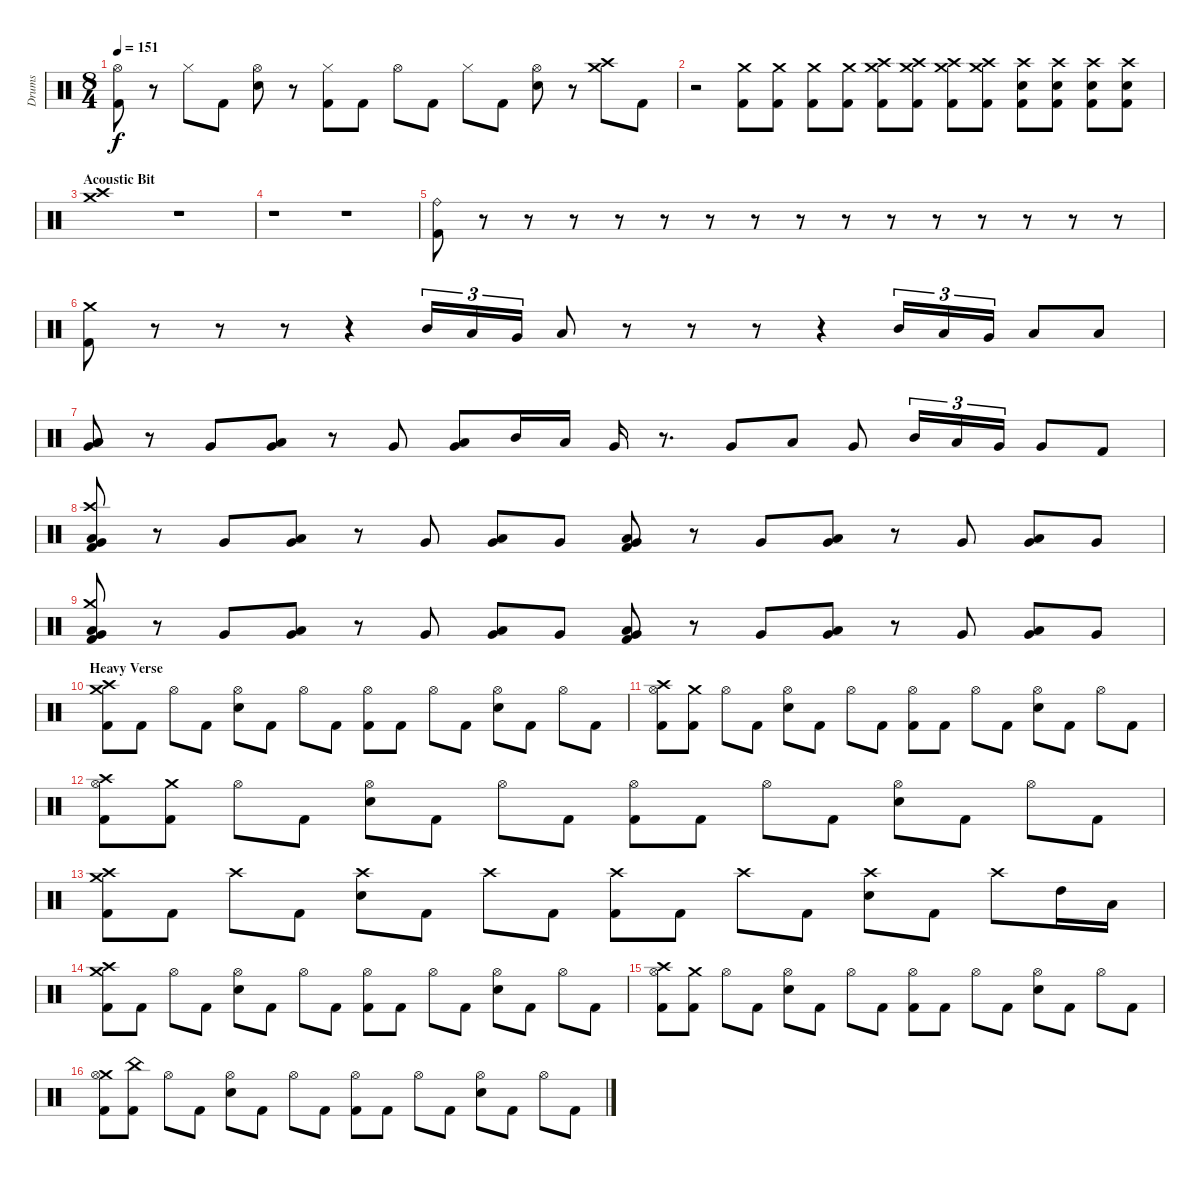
\track ("Drums" "Drums") {instrument percussion}
\staff {score}
\articulation defaults
\ts (8 4)
\tempo 151
\clef neutral
\ks c
("Hi-Hat (open)" "Kick (hit) 2").8{dy f} r.8 "Hi-Hat (closed)".8 "Kick (hit) 2".8 ("Hi-Hat (open)" "Electric Snare (hit)").8 r.8 ("Hi-Hat (closed)" "Kick (hit) 2").8 "Kick (hit) 2".8 "Hi-Hat (open)".8 "Kick (hit) 2".8 "Hi-Hat (closed)".8 "Kick (hit) 2".8 ("Hi-Hat (open)" "Electric Snare (hit)").8 r.8 ("Crash medium (hit)" "Crash high (hit)").8 "Kick (hit) 2".8 |
r.2 ("Crash medium (hit)" "Kick (hit) 2").8 ("Crash medium (hit)" "Kick (hit) 2").8 ("Crash medium (hit)" "Kick (hit) 2").8 ("Crash medium (hit)" "Kick (hit) 2").8 ("Crash high (hit)" "Crash medium (hit)" "Kick (hit) 2").8 ("Crash high (hit)" "Crash medium (hit)" "Kick (hit) 2").8 ("Crash high (hit)" "Crash medium (hit)" "Kick (hit) 2").8 ("Crash high (hit)" "Crash medium (hit)" "Kick (hit) 2").8 ("Crash high (hit)" "Electric Snare (hit)" "Kick (hit) 2").8 ("Crash high (hit)" "Electric Snare (hit)" "Kick (hit) 2").8 ("Crash high (hit)" "Electric Snare (hit)" "Kick (hit) 2").8 ("Crash high (hit)" "Electric Snare (hit)" "Kick (hit) 2").8 |
\section ("" "Acoustic Bit")
("Crash high (hit)" "Crash medium (hit)").1 r.1 |
r.1 r.1 |
("Ride (bell)" "Kick (hit) 2").8 r.8 r.8 r.8 r.8 r.8 r.8 r.8 r.8 r.8 r.8 r.8 r.8 r.8 r.8 r.8 |
("Crash medium (hit)" "Kick (hit) 2").8 r.8 r.8 r.8 r.4 "Mid Tom (hit)".16{tu (3 2)} "Low Tom (hit)".16{tu (3 2)} "Very Low Tom (hit)".16{tu (3 2)} "Low Floor Tom (hit)".8 r.8 r.8 r.8 r.4 "Mid Tom (hit)".16{tu (3 2)} "Low Tom (hit)".16{tu (3 2)} "Very Low Tom (hit)".16{tu (3 2)} "Low Floor Tom (hit)".8 "Low Floor Tom (hit)".8 |
("Low Tom (hit)" "Very Low Tom (hit)" "Low Floor Tom (hit)").8 r.8 "Very Low Tom (hit)".8 ("Low Tom (hit)" "Very Low Tom (hit)").8 r.8 "Very Low Tom (hit)".8 ("Low Tom (hit)" "Very Low Tom (hit)").8 "Mid Tom (hit)".16 "Low Tom (hit)".16 "Very Low Tom (hit)".16 r.8{d} "Very Low Tom (hit)".8 "Low Floor Tom (hit)".8 "Very Low Tom (hit)".8 "Mid Tom (hit)".16{tu (3 2)} "Low Tom (hit)".16{tu (3 2)} "Very Low Tom (hit)".16{tu (3 2)} "Very Low Tom (hit)".8 "Kick (hit) 2".8 |
("Crash high (hit)" "Low Tom (hit)" "Very Low Tom (hit)" "Kick (hit) 2").8 r.8 "Very Low Tom (hit)".8 ("Low Tom (hit)" "Very Low Tom (hit)").8 r.8 "Very Low Tom (hit)".8 ("Low Tom (hit)" "Very Low Tom (hit)").8 "Very Low Tom (hit)".8 ("Low Tom (hit)" "Very Low Tom (hit)" "Kick (hit) 2").8 r.8 "Very Low Tom (hit)".8 ("Low Tom (hit)" "Very Low Tom (hit)").8 r.8 "Very Low Tom (hit)".8 ("Low Tom (hit)" "Very Low Tom (hit)").8 "Very Low Tom (hit)".8 |
("Crash medium (hit)" "Low Tom (hit)" "Very Low Tom (hit)" "Kick (hit) 2").8 r.8 "Very Low Tom (hit)".8 ("Low Tom (hit)" "Very Low Tom (hit)").8 r.8 "Very Low Tom (hit)".8 ("Low Tom (hit)" "Very Low Tom (hit)").8 "Very Low Tom (hit)".8 ("Low Tom (hit)" "Very Low Tom (hit)" "Kick (hit) 2").8 r.8 "Very Low Tom (hit)".8 ("Low Tom (hit)" "Very Low Tom (hit)").8 r.8 "Very Low Tom (hit)".8 ("Low Tom (hit)" "Very Low Tom (hit)").8 "Very Low Tom (hit)".8 |
\section ("" "Heavy Verse")
("Crash high (hit)" "Crash medium (hit)" "Kick (hit) 2").8 "Kick (hit) 2".8 "Hi-Hat (open)".8 "Kick (hit) 2".8 ("Hi-Hat (open)" "Electric Snare (hit)").8 "Kick (hit) 2".8 "Hi-Hat (open)".8 "Kick (hit) 2".8 ("Hi-Hat (open)" "Kick (hit) 2").8 "Kick (hit) 2".8 "Hi-Hat (open)".8 "Kick (hit) 2".8 ("Hi-Hat (open)" "Electric Snare (hit)").8 "Kick (hit) 2".8 "Hi-Hat (open)".8 "Kick (hit) 2".8 |
("Crash high (hit)" "Hi-Hat (open)" "Kick (hit) 2").8 ("Crash medium (hit)" "Kick (hit) 2").8 "Hi-Hat (open)".8 "Kick (hit) 2".8 ("Hi-Hat (open)" "Electric Snare (hit)").8 "Kick (hit) 2".8 "Hi-Hat (open)".8 "Kick (hit) 2".8 ("Hi-Hat (open)" "Kick (hit) 2").8 "Kick (hit) 2".8 "Hi-Hat (open)".8 "Kick (hit) 2".8 ("Hi-Hat (open)" "Electric Snare (hit)").8 "Kick (hit) 2".8 "Hi-Hat (open)".8 "Kick (hit) 2".8 |
("Crash high (hit)" "Hi-Hat (open)" "Kick (hit) 2").8 ("Crash medium (hit)" "Kick (hit) 2").8 "Hi-Hat (open)".8 "Kick (hit) 2".8 ("Hi-Hat (open)" "Electric Snare (hit)").8 "Kick (hit) 2".8 "Hi-Hat (open)".8 "Kick (hit) 2".8 ("Hi-Hat (open)" "Kick (hit) 2").8 "Kick (hit) 2".8 "Hi-Hat (open)".8 "Kick (hit) 2".8 ("Hi-Hat (open)" "Electric Snare (hit)").8 "Kick (hit) 2".8 "Hi-Hat (open)".8 "Kick (hit) 2".8 |
("Crash high (hit)" "Crash medium (hit)" "Kick (hit) 2").8 "Kick (hit) 2".8 "Crash high (hit)".8 "Kick (hit) 2".8 ("Crash high (hit)" "Electric Snare (hit)").8 "Kick (hit) 2".8 "Crash high (hit)".8 "Kick (hit) 2".8 ("Crash high (hit)" "Kick (hit) 2").8 "Kick (hit) 2".8 "Crash high (hit)".8 "Kick (hit) 2".8 ("Crash high (hit)" "Electric Snare (hit)").8 "Kick (hit) 2".8 "Crash high (hit)".8 "High Tom (hit)".16 "Low Tom (hit)".16 |
("Crash high (hit)" "Crash medium (hit)" "Kick (hit) 2").8 "Kick (hit) 2".8 "Hi-Hat (open)".8 "Kick (hit) 2".8 ("Hi-Hat (open)" "Electric Snare (hit)").8 "Kick (hit) 2".8 "Hi-Hat (open)".8 "Kick (hit) 2".8 ("Hi-Hat (open)" "Kick (hit) 2").8 "Kick (hit) 2".8 "Hi-Hat (open)".8 "Kick (hit) 2".8 ("Hi-Hat (open)" "Electric Snare (hit)").8 "Kick (hit) 2".8 "Hi-Hat (open)".8 "Kick (hit) 2".8 |
("Crash high (hit)" "Hi-Hat (open)" "Kick (hit) 2").8 ("Crash medium (hit)" "Kick (hit) 2").8 "Hi-Hat (open)".8 "Kick (hit) 2".8 ("Hi-Hat (open)" "Electric Snare (hit)").8 "Kick (hit) 2".8 "Hi-Hat (open)".8 "Kick (hit) 2".8 ("Hi-Hat (open)" "Kick (hit) 2").8 "Kick (hit) 2".8 "Hi-Hat (open)".8 "Kick (hit) 2".8 ("Hi-Hat (open)" "Electric Snare (hit)").8 "Kick (hit) 2".8 "Hi-Hat (open)".8 "Kick (hit) 2".8 |
("Crash medium (hit)" "Hi-Hat (open)" "Kick (hit) 2").8 ("China (hit)" "Kick (hit) 2").8 "Hi-Hat (open)".8 "Kick (hit) 2".8 ("Hi-Hat (open)" "Electric Snare (hit)").8 "Kick (hit) 2".8 "Hi-Hat (open)".8 "Kick (hit) 2".8 ("Hi-Hat (open)" "Kick (hit) 2").8 "Kick (hit) 2".8 "Hi-Hat (open)".8 "Kick (hit) 2".8 ("Hi-Hat (open)" "Electric Snare (hit)").8 "Kick (hit) 2".8 "Hi-Hat (open)".8 "Kick (hit) 2".8
